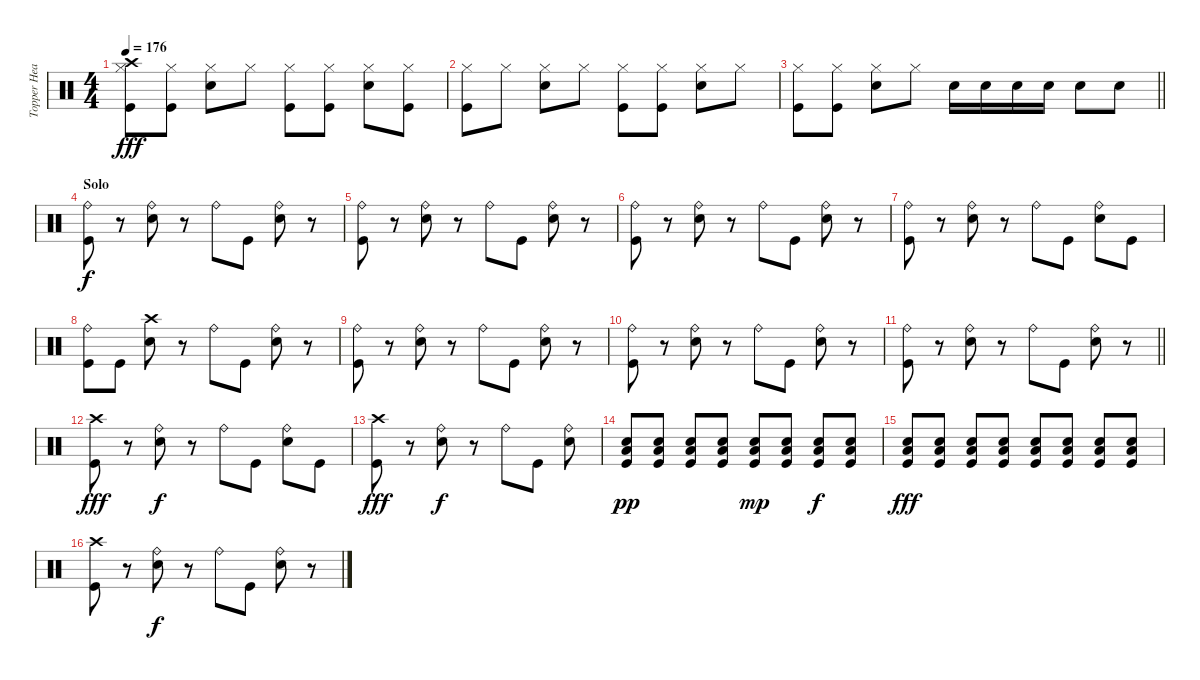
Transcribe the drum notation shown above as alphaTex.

\track ("Topper Headon - Drums" "Topper Hea") {instrument percussion}
\staff {score}
\articulation defaults
\ts (4 4)
\tempo 176
\clef neutral
\ks c
("Kick (hit)" "Hi-Hat (closed)" "Crash high (hit)").8{dy fff} ("Kick (hit)" "Hi-Hat (closed)").8 ("Hi-Hat (closed)" "Snare (hit) 2").8 "Hi-Hat (closed)".8 ("Kick (hit)" "Hi-Hat (closed)").8 ("Kick (hit)" "Hi-Hat (closed)").8 ("Hi-Hat (closed)" "Snare (hit) 2").8 ("Hi-Hat (closed)" "Kick (hit)").8 |
("Hi-Hat (closed)" "Kick (hit)").8 "Hi-Hat (closed)".8 ("Hi-Hat (closed)" "Snare (hit) 2").8 "Hi-Hat (closed)".8 ("Hi-Hat (closed)" "Kick (hit)").8 ("Hi-Hat (closed)" "Kick (hit)").8 ("Hi-Hat (closed)" "Snare (hit) 2").8 "Hi-Hat (closed)".8 |
\barLineRight lightlight
("Kick (hit)" "Hi-Hat (closed)").8 ("Kick (hit)" "Hi-Hat (closed)").8 ("Hi-Hat (closed)" "Snare (hit) 2").8 "Hi-Hat (closed)".8 "Snare (hit) 2".16 "Snare (hit) 2".16 "Snare (hit) 2".16 "Snare (hit) 2".16 "Snare (hit) 2".8 "Snare (hit) 2".8 |
\section ("" "Solo")
("Ride (bell)" "Kick (hit)").8{dy f} r.8 ("Ride (bell)" "Snare (hit) 2").8 r.8 "Ride (bell)".8 "Kick (hit)".8 ("Ride (bell)" "Snare (hit) 2").8 r.8 |
("Ride (bell)" "Kick (hit)").8 r.8 ("Ride (bell)" "Snare (hit) 2").8 r.8 "Ride (bell)".8 "Kick (hit)".8 ("Ride (bell)" "Snare (hit) 2").8 r.8 |
("Ride (bell)" "Kick (hit)").8 r.8 ("Ride (bell)" "Snare (hit) 2").8 r.8 "Ride (bell)".8 "Kick (hit)".8 ("Ride (bell)" "Snare (hit) 2").8 r.8 |
("Ride (bell)" "Kick (hit)").8 r.8 ("Ride (bell)" "Snare (hit) 2").8 r.8 "Ride (bell)".8 "Kick (hit)".8 ("Ride (bell)" "Snare (hit) 2").8 "Kick (hit)".8 |
("Ride (bell)" "Kick (hit)").8 "Kick (hit)".8 ("Crash high (hit)" "Snare (hit) 2").8 r.8 "Ride (bell)".8 "Kick (hit)".8 ("Ride (bell)" "Snare (hit) 2").8 r.8 |
("Ride (bell)" "Kick (hit)").8 r.8 ("Ride (bell)" "Snare (hit) 2").8 r.8 "Ride (bell)".8 "Kick (hit)".8 ("Ride (bell)" "Snare (hit) 2").8 r.8 |
("Ride (bell)" "Kick (hit)").8 r.8 ("Ride (bell)" "Snare (hit) 2").8 r.8 "Ride (bell)".8 "Kick (hit)".8 ("Ride (bell)" "Snare (hit) 2").8 r.8 |
\barLineRight lightlight
("Ride (bell)" "Kick (hit)").8 r.8 ("Ride (bell)" "Snare (hit) 2").8 r.8 "Ride (bell)".8 "Kick (hit)".8 ("Ride (bell)" "Snare (hit) 2").8 r.8 |
("Crash high (hit)" "Kick (hit)").8{dy fff} r.8 ("Ride (bell)" "Snare (hit) 2").8{dy f} r.8 "Ride (bell)".8 "Kick (hit)".8 ("Ride (bell)" "Snare (hit) 2").8 "Kick (hit)".8 |
("Crash high (hit)" "Kick (hit)").8{dy fff} r.8 ("Ride (bell)" "Snare (hit) 2").8{dy f} r.8 "Ride (bell)".8 "Kick (hit)".8 ("Ride (bell)" "Snare (hit) 2").8 |
("Kick (hit)" "Low Floor Tom (hit)" "Snare (hit) 2").8{dy pp} ("Kick (hit)" "Low Floor Tom (hit)" "Snare (hit) 2").8 ("Kick (hit)" "Low Floor Tom (hit)" "Snare (hit) 2").8 ("Kick (hit)" "Low Floor Tom (hit)" "Snare (hit) 2").8 ("Kick (hit)" "Low Floor Tom (hit)" "Snare (hit) 2").8{dy mp} ("Kick (hit)" "Low Floor Tom (hit)" "Snare (hit) 2").8 ("Kick (hit)" "Low Floor Tom (hit)" "Snare (hit) 2").8{dy f} ("Kick (hit)" "Low Floor Tom (hit)" "Snare (hit) 2").8 |
("Kick (hit)" "Low Floor Tom (hit)" "Snare (hit) 2").8{dy fff} ("Kick (hit)" "Low Floor Tom (hit)" "Snare (hit) 2").8 ("Kick (hit)" "Low Floor Tom (hit)" "Snare (hit) 2").8 ("Kick (hit)" "Low Floor Tom (hit)" "Snare (hit) 2").8 ("Kick (hit)" "Low Floor Tom (hit)" "Snare (hit) 2").8 ("Kick (hit)" "Low Floor Tom (hit)" "Snare (hit) 2").8 ("Kick (hit)" "Low Floor Tom (hit)" "Snare (hit) 2").8 ("Kick (hit)" "Low Floor Tom (hit)" "Snare (hit) 2").8 |
("Crash high (hit)" "Kick (hit)").8 r.8 ("Ride (bell)" "Snare (hit) 2").8{dy f} r.8 "Ride (bell)".8 "Kick (hit)".8 ("Ride (bell)" "Snare (hit) 2").8 r.8
